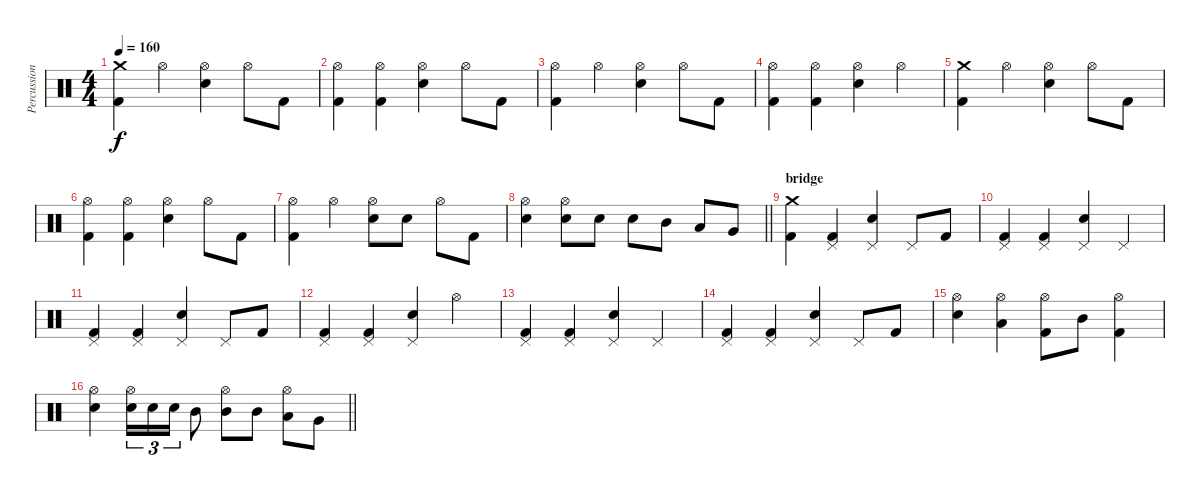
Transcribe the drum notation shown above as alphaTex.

\track ("Percussioni" "Percussion") {instrument percussion}
\staff {score}
\articulation defaults
\ts (4 4)
\tempo 160
\clef neutral
\ks c
("Crash medium (hit)" "Kick (hit) 2").4{dy f} "Hi-Hat (open)".4 ("Hi-Hat (open)" "Snare (hit) 2").4 "Hi-Hat (open)".8 "Kick (hit) 2".8 |
("Hi-Hat (open)" "Kick (hit) 2").4 ("Hi-Hat (open)" "Kick (hit) 2").4 ("Hi-Hat (open)" "Snare (hit) 2").4 "Hi-Hat (open)".8 "Kick (hit) 2".8 |
("Hi-Hat (open)" "Kick (hit) 2").4 "Hi-Hat (open)".4 ("Hi-Hat (open)" "Snare (hit) 2").4 "Hi-Hat (open)".8 "Kick (hit) 2".8 |
("Hi-Hat (open)" "Kick (hit) 2").4 ("Hi-Hat (open)" "Kick (hit) 2").4 ("Hi-Hat (open)" "Snare (hit) 2").4 "Hi-Hat (open)".4 |
("Crash medium (hit)" "Kick (hit) 2").4 "Hi-Hat (open)".4 ("Hi-Hat (open)" "Snare (hit) 2").4 "Hi-Hat (open)".8 "Kick (hit) 2".8 |
("Hi-Hat (open)" "Kick (hit) 2").4 ("Hi-Hat (open)" "Kick (hit) 2").4 ("Hi-Hat (open)" "Snare (hit) 2").4 "Hi-Hat (open)".8 "Kick (hit) 2".8 |
("Hi-Hat (open)" "Kick (hit) 2").4 "Hi-Hat (open)".4 ("Hi-Hat (open)" "Snare (hit) 2").8 "Snare (hit) 2".8 "Hi-Hat (open)".8 "Kick (hit) 2".8 |
\barLineRight lightlight
("Hi-Hat (open)" "Snare (hit) 2").4 ("Hi-Hat (open)" "Snare (hit) 2").8 "Snare (hit) 2".8 "Snare (hit) 2".8 "Mid Tom (hit)".8 "Low Tom (hit)".8 "Very Low Tom (hit)".8 |
\section ("" "bridge")
("Crash medium (hit)" "Kick (hit) 2").4 ("Pedal Hi-Hat (hit)" "Kick (hit) 2").4 ("Pedal Hi-Hat (hit)" "Snare (hit) 2").4 "Pedal Hi-Hat (hit)".8 "Kick (hit) 2".8 |
("Pedal Hi-Hat (hit)" "Kick (hit) 2").4 ("Pedal Hi-Hat (hit)" "Kick (hit) 2").4 ("Pedal Hi-Hat (hit)" "Snare (hit) 2").4 "Pedal Hi-Hat (hit)".4 |
("Pedal Hi-Hat (hit)" "Kick (hit) 2").4 ("Pedal Hi-Hat (hit)" "Kick (hit) 2").4 ("Pedal Hi-Hat (hit)" "Snare (hit) 2").4 "Pedal Hi-Hat (hit)".8 "Kick (hit) 2".8 |
("Pedal Hi-Hat (hit)" "Kick (hit) 2").4 ("Pedal Hi-Hat (hit)" "Kick (hit) 2").4 ("Pedal Hi-Hat (hit)" "Snare (hit) 2").4 "Hi-Hat (open)".4 |
("Pedal Hi-Hat (hit)" "Kick (hit) 2").4 ("Pedal Hi-Hat (hit)" "Kick (hit) 2").4 ("Pedal Hi-Hat (hit)" "Snare (hit) 2").4 "Pedal Hi-Hat (hit)".4 |
("Pedal Hi-Hat (hit)" "Kick (hit) 2").4 ("Pedal Hi-Hat (hit)" "Kick (hit) 2").4 ("Pedal Hi-Hat (hit)" "Snare (hit) 2").4 "Pedal Hi-Hat (hit)".8 "Kick (hit) 2".8 |
("Hi-Hat (open)" "Snare (hit) 2").4 ("Hi-Hat (open)" "Low Floor Tom (hit)").4 ("Hi-Hat (open)" "Kick (hit) 2").8 "Mid Tom (hit)".8 ("Hi-Hat (open)" "Kick (hit) 2").4 |
\barLineRight lightlight
("Hi-Hat (open)" "Snare (hit) 2").4 ("Hi-Hat (open)" "Snare (hit) 2").16{tu (3 2)} "Snare (hit) 2".16{tu (3 2)} "Snare (hit) 2".16{tu (3 2)} "Mid Tom (hit)".8 ("Hi-Hat (open)" "Mid Tom (hit)").8 "Mid Tom (hit)".8 ("Hi-Hat (open)" "Low Tom (hit)").8 "Very Low Tom (hit)".8
